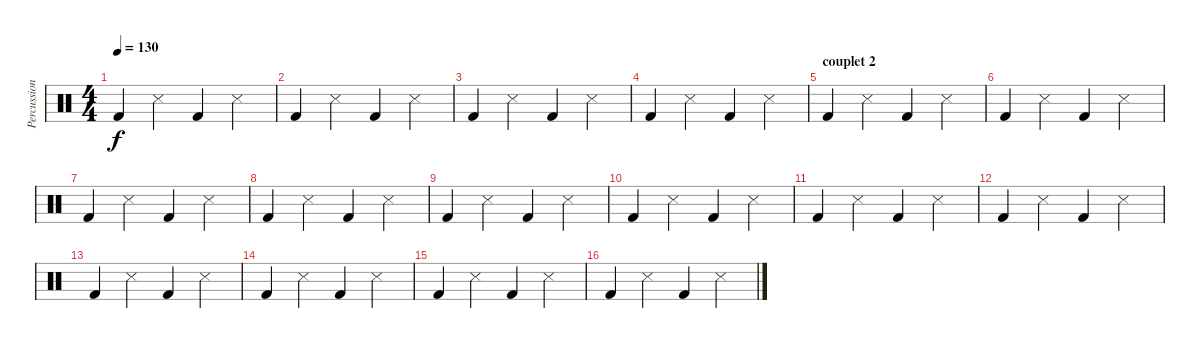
\track ("Percussions" "Percussion") {instrument percussion}
\staff {score}
\articulation defaults
\ts (4 4)
\tempo 130
\clef neutral
\ks c "Kick (hit) 2".4{dy f} "Snare (side stick) 3".4 "Kick (hit) 2".4 "Snare (side stick) 3".4
|
"Kick (hit) 2".4 "Snare (side stick) 3".4 "Kick (hit) 2".4 "Snare (side stick) 3".4 |
"Kick (hit) 2".4 "Snare (side stick) 3".4 "Kick (hit) 2".4 "Snare (side stick) 3".4 |
"Kick (hit) 2".4 "Snare (side stick) 3".4 "Kick (hit) 2".4 "Snare (side stick) 3".4 |
\section ("" "couplet 2")
"Kick (hit) 2".4 "Snare (side stick) 3".4 "Kick (hit) 2".4 "Snare (side stick) 3".4 |
"Kick (hit) 2".4 "Snare (side stick) 3".4 "Kick (hit) 2".4 "Snare (side stick) 3".4 |
"Kick (hit) 2".4 "Snare (side stick) 3".4 "Kick (hit) 2".4 "Snare (side stick) 3".4 |
"Kick (hit) 2".4 "Snare (side stick) 3".4 "Kick (hit) 2".4 "Snare (side stick) 3".4 |
"Kick (hit) 2".4 "Snare (side stick) 3".4 "Kick (hit) 2".4 "Snare (side stick) 3".4 |
"Kick (hit) 2".4 "Snare (side stick) 3".4 "Kick (hit) 2".4 "Snare (side stick) 3".4 |
"Kick (hit) 2".4 "Snare (side stick) 3".4 "Kick (hit) 2".4 "Snare (side stick) 3".4 |
"Kick (hit) 2".4 "Snare (side stick) 3".4 "Kick (hit) 2".4 "Snare (side stick) 3".4 |
"Kick (hit) 2".4 "Snare (side stick) 3".4 "Kick (hit) 2".4 "Snare (side stick) 3".4 |
"Kick (hit) 2".4 "Snare (side stick) 3".4 "Kick (hit) 2".4 "Snare (side stick) 3".4 |
"Kick (hit) 2".4 "Snare (side stick) 3".4 "Kick (hit) 2".4 "Snare (side stick) 3".4 |
"Kick (hit) 2".4 "Snare (side stick) 3".4 "Kick (hit) 2".4 "Snare (side stick) 3".4
